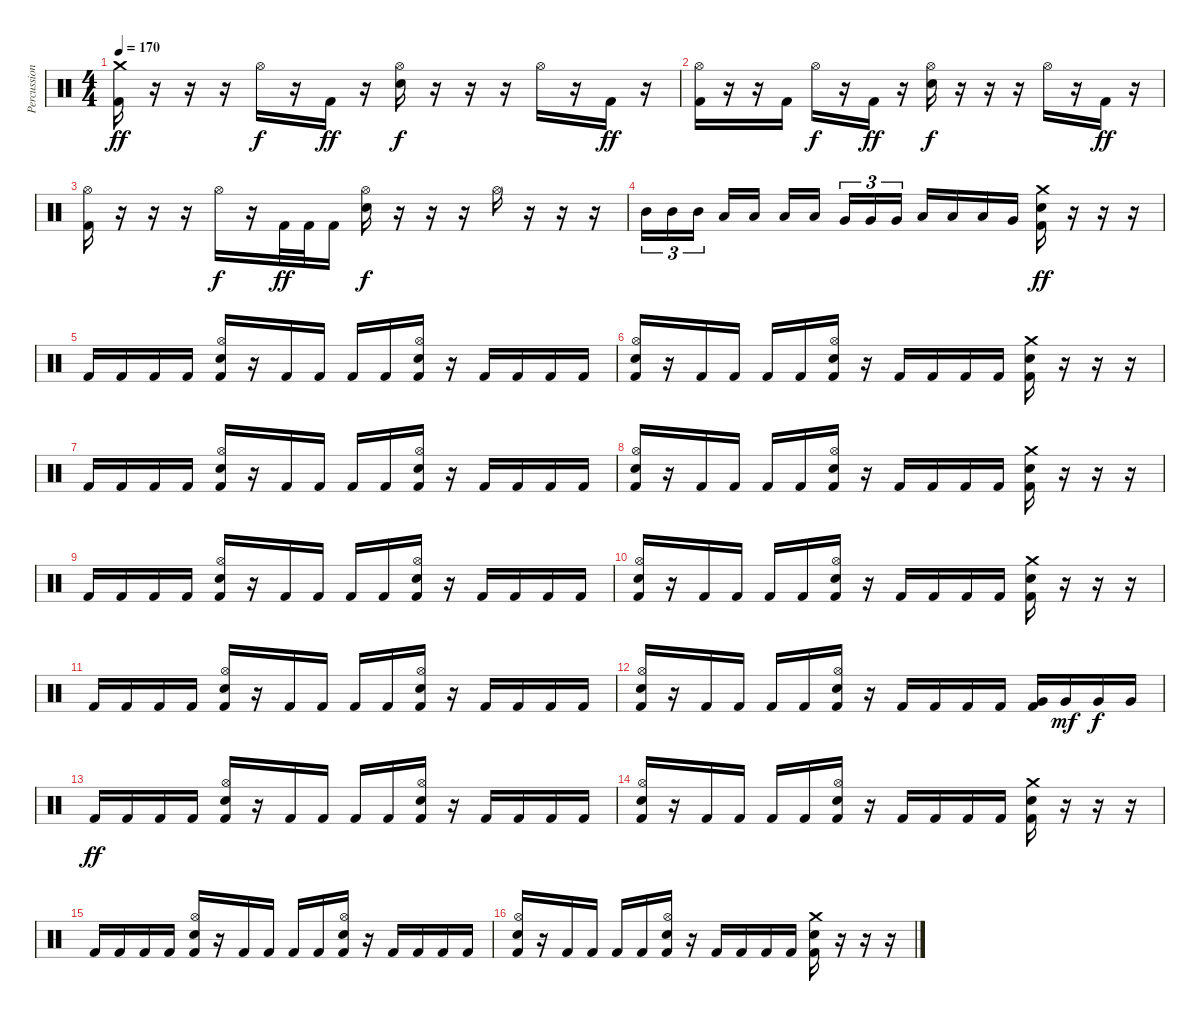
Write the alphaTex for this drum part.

\track ("Percussion" "Percussion") {instrument percussion}
\staff {score}
\articulation defaults
\ts (4 4)
\tempo 170
\clef neutral
\ks c
("Crash medium (hit)" "Kick (hit) 2").16{dy ff} r.16 r.16 r.16 "Hi-Hat (open)".16{dy f} r.16 "Kick (hit) 2".16{dy ff} r.16 ("Hi-Hat (open)" "Electric Snare (hit)").16{dy f} r.16 r.16 r.16 "Hi-Hat (open)".16 r.16 "Kick (hit) 2".16{dy ff} r.16 |
("Hi-Hat (open)" "Kick (hit) 2").16 r.16 r.16 "Kick (hit) 2".16 "Hi-Hat (open)".16{dy f} r.16 "Kick (hit) 2".16{dy ff} r.16 ("Hi-Hat (open)" "Electric Snare (hit)").16{dy f} r.16 r.16 r.16 "Hi-Hat (open)".16 r.16 "Kick (hit) 2".16{dy ff} r.16 |
("Hi-Hat (open)" "Kick (hit) 2").16 r.16 r.16 r.16 "Hi-Hat (open)".16{dy f} r.16 "Kick (hit) 2".32{dy ff} "Kick (hit) 2".32 "Kick (hit) 2".16 ("Hi-Hat (open)" "Electric Snare (hit)").16{dy f} r.16 r.16 r.16 "Hi-Hat (open)".16 r.16 r.16 r.16 |
"Mid Tom (hit)".16{tu (3 2)} "Mid Tom (hit)".16{tu (3 2)} "Mid Tom (hit)".16{tu (3 2)} "Low Tom (hit)".16 "Low Tom (hit)".16 "Low Tom (hit)".16 "Low Tom (hit)".16 "Very Low Tom (hit)".16{tu (3 2)} "Very Low Tom (hit)".16{tu (3 2)} "Very Low Tom (hit)".16{tu (3 2)} "Low Floor Tom (hit)".16 "Low Floor Tom (hit)".16 "Low Floor Tom (hit)".16 "Very Low Tom (hit)".16 ("Crash medium (hit)" "Electric Snare (hit)" "Kick (hit) 2").16{dy ff} r.16 r.16 r.16 |
"Kick (hit) 2".16 "Kick (hit) 2".16 "Kick (hit) 2".16 "Kick (hit) 2".16 ("Hi-Hat (open)" "Electric Snare (hit)" "Kick (hit) 2").16 r.16 "Kick (hit) 2".16 "Kick (hit) 2".16 "Kick (hit) 2".16 "Kick (hit) 2".16 ("Hi-Hat (open)" "Electric Snare (hit)" "Kick (hit) 2").16 r.16 "Kick (hit) 2".16 "Kick (hit) 2".16 "Kick (hit) 2".16 "Kick (hit) 2".16 |
("Hi-Hat (open)" "Electric Snare (hit)" "Kick (hit) 2").16 r.16 "Kick (hit) 2".16 "Kick (hit) 2".16 "Kick (hit) 2".16 "Kick (hit) 2".16 ("Hi-Hat (open)" "Electric Snare (hit)" "Kick (hit) 2").16 r.16 "Kick (hit) 2".16 "Kick (hit) 2".16 "Kick (hit) 2".16 "Kick (hit) 2".16 ("Crash medium (hit)" "Electric Snare (hit)" "Kick (hit) 2").16 r.16 r.16 r.16 |
"Kick (hit) 2".16 "Kick (hit) 2".16 "Kick (hit) 2".16 "Kick (hit) 2".16 ("Hi-Hat (open)" "Electric Snare (hit)" "Kick (hit) 2").16 r.16 "Kick (hit) 2".16 "Kick (hit) 2".16 "Kick (hit) 2".16 "Kick (hit) 2".16 ("Hi-Hat (open)" "Electric Snare (hit)" "Kick (hit) 2").16 r.16 "Kick (hit) 2".16 "Kick (hit) 2".16 "Kick (hit) 2".16 "Kick (hit) 2".16 |
("Hi-Hat (open)" "Electric Snare (hit)" "Kick (hit) 2").16 r.16 "Kick (hit) 2".16 "Kick (hit) 2".16 "Kick (hit) 2".16 "Kick (hit) 2".16 ("Hi-Hat (open)" "Electric Snare (hit)" "Kick (hit) 2").16 r.16 "Kick (hit) 2".16 "Kick (hit) 2".16 "Kick (hit) 2".16 "Kick (hit) 2".16 ("Crash medium (hit)" "Electric Snare (hit)" "Kick (hit) 2").16 r.16 r.16 r.16 |
"Kick (hit) 2".16 "Kick (hit) 2".16 "Kick (hit) 2".16 "Kick (hit) 2".16 ("Hi-Hat (open)" "Electric Snare (hit)" "Kick (hit) 2").16 r.16 "Kick (hit) 2".16 "Kick (hit) 2".16 "Kick (hit) 2".16 "Kick (hit) 2".16 ("Hi-Hat (open)" "Electric Snare (hit)" "Kick (hit) 2").16 r.16 "Kick (hit) 2".16 "Kick (hit) 2".16 "Kick (hit) 2".16 "Kick (hit) 2".16 |
("Hi-Hat (open)" "Electric Snare (hit)" "Kick (hit) 2").16 r.16 "Kick (hit) 2".16 "Kick (hit) 2".16 "Kick (hit) 2".16 "Kick (hit) 2".16 ("Hi-Hat (open)" "Electric Snare (hit)" "Kick (hit) 2").16 r.16 "Kick (hit) 2".16 "Kick (hit) 2".16 "Kick (hit) 2".16 "Kick (hit) 2".16 ("Crash medium (hit)" "Electric Snare (hit)" "Kick (hit) 2").16 r.16 r.16 r.16 |
"Kick (hit) 2".16 "Kick (hit) 2".16 "Kick (hit) 2".16 "Kick (hit) 2".16 ("Hi-Hat (open)" "Electric Snare (hit)" "Kick (hit) 2").16 r.16 "Kick (hit) 2".16 "Kick (hit) 2".16 "Kick (hit) 2".16 "Kick (hit) 2".16 ("Hi-Hat (open)" "Electric Snare (hit)" "Kick (hit) 2").16 r.16 "Kick (hit) 2".16 "Kick (hit) 2".16 "Kick (hit) 2".16 "Kick (hit) 2".16 |
("Hi-Hat (open)" "Electric Snare (hit)" "Kick (hit) 2").16 r.16 "Kick (hit) 2".16 "Kick (hit) 2".16 "Kick (hit) 2".16 "Kick (hit) 2".16 ("Hi-Hat (open)" "Electric Snare (hit)" "Kick (hit) 2").16 r.16 "Kick (hit) 2".16 "Kick (hit) 2".16 "Kick (hit) 2".16 "Kick (hit) 2".16 ("Very Low Tom (hit)" "Kick (hit) 2").16 "Very Low Tom (hit)".16{dy mf} "Very Low Tom (hit)".16{dy f} "Very Low Tom (hit)".16 |
"Kick (hit) 2".16{dy ff} "Kick (hit) 2".16 "Kick (hit) 2".16 "Kick (hit) 2".16 ("Hi-Hat (open)" "Electric Snare (hit)" "Kick (hit) 2").16 r.16 "Kick (hit) 2".16 "Kick (hit) 2".16 "Kick (hit) 2".16 "Kick (hit) 2".16 ("Hi-Hat (open)" "Electric Snare (hit)" "Kick (hit) 2").16 r.16 "Kick (hit) 2".16 "Kick (hit) 2".16 "Kick (hit) 2".16 "Kick (hit) 2".16 |
("Hi-Hat (open)" "Electric Snare (hit)" "Kick (hit) 2").16 r.16 "Kick (hit) 2".16 "Kick (hit) 2".16 "Kick (hit) 2".16 "Kick (hit) 2".16 ("Hi-Hat (open)" "Electric Snare (hit)" "Kick (hit) 2").16 r.16 "Kick (hit) 2".16 "Kick (hit) 2".16 "Kick (hit) 2".16 "Kick (hit) 2".16 ("Crash medium (hit)" "Electric Snare (hit)" "Kick (hit) 2").16 r.16 r.16 r.16 |
"Kick (hit) 2".16 "Kick (hit) 2".16 "Kick (hit) 2".16 "Kick (hit) 2".16 ("Hi-Hat (open)" "Electric Snare (hit)" "Kick (hit) 2").16 r.16 "Kick (hit) 2".16 "Kick (hit) 2".16 "Kick (hit) 2".16 "Kick (hit) 2".16 ("Hi-Hat (open)" "Electric Snare (hit)" "Kick (hit) 2").16 r.16 "Kick (hit) 2".16 "Kick (hit) 2".16 "Kick (hit) 2".16 "Kick (hit) 2".16 |
("Hi-Hat (open)" "Electric Snare (hit)" "Kick (hit) 2").16 r.16 "Kick (hit) 2".16 "Kick (hit) 2".16 "Kick (hit) 2".16 "Kick (hit) 2".16 ("Hi-Hat (open)" "Electric Snare (hit)" "Kick (hit) 2").16 r.16 "Kick (hit) 2".16 "Kick (hit) 2".16 "Kick (hit) 2".16 "Kick (hit) 2".16 ("Crash medium (hit)" "Electric Snare (hit)" "Kick (hit) 2").16 r.16 r.16 r.16
